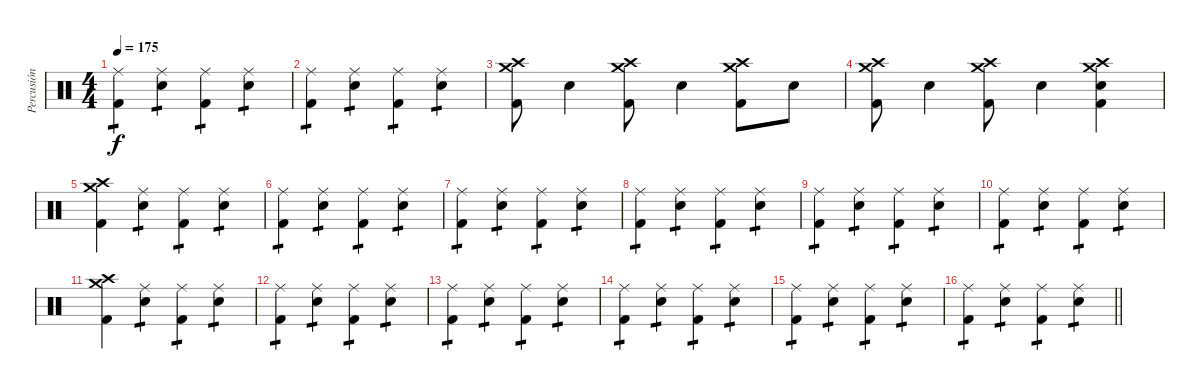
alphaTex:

\track ("Percusión" "Percusión") {instrument percussion}
\staff {score}
\articulation defaults
\ts (4 4)
\tempo 175
\clef neutral
\ks c
("Ride (middle)" "Kick (hit) 2").4{tp 1 dy f} ("Ride (middle)" "Electric Snare (hit)").4{tp 1} ("Ride (middle)" "Kick (hit) 2").4{tp 1} ("Ride (middle)" "Electric Snare (hit)").4{tp 1} |
("Ride (middle)" "Kick (hit) 2").4{tp 1} ("Ride (middle)" "Electric Snare (hit)").4{tp 1} ("Ride (middle)" "Kick (hit) 2").4{tp 1} ("Ride (middle)" "Electric Snare (hit)").4{tp 1} |
("Crash high (hit)" "Crash medium (hit)" "Kick (hit) 2").8 "Electric Snare (hit)".4 ("Crash high (hit)" "Crash medium (hit)" "Kick (hit) 2").8 "Electric Snare (hit)".4 ("Crash high (hit)" "Crash medium (hit)" "Kick (hit) 2").8 "Electric Snare (hit)".8 |
("Crash high (hit)" "Crash medium (hit)" "Kick (hit) 2").8 "Electric Snare (hit)".4 ("Crash high (hit)" "Crash medium (hit)" "Kick (hit) 2").8 "Electric Snare (hit)".4 ("Crash high (hit)" "Crash medium (hit)" "Electric Snare (hit)" "Kick (hit) 2").4 |
("Crash high (hit)" "Crash medium (hit)" "Kick (hit) 2").4 ("Ride (middle)" "Electric Snare (hit)").4{tp 1} ("Ride (middle)" "Kick (hit) 2").4{tp 1} ("Ride (middle)" "Electric Snare (hit)").4{tp 1} |
("Ride (middle)" "Kick (hit) 2").4{tp 1} ("Ride (middle)" "Electric Snare (hit)").4{tp 1} ("Ride (middle)" "Kick (hit) 2").4{tp 1} ("Ride (middle)" "Electric Snare (hit)").4{tp 1} |
("Ride (middle)" "Kick (hit) 2").4{tp 1} ("Ride (middle)" "Electric Snare (hit)").4{tp 1} ("Ride (middle)" "Kick (hit) 2").4{tp 1} ("Ride (middle)" "Electric Snare (hit)").4{tp 1} |
("Ride (middle)" "Kick (hit) 2").4{tp 1} ("Ride (middle)" "Electric Snare (hit)").4{tp 1} ("Ride (middle)" "Kick (hit) 2").4{tp 1} ("Ride (middle)" "Electric Snare (hit)").4{tp 1} |
("Ride (middle)" "Kick (hit) 2").4{tp 1} ("Ride (middle)" "Electric Snare (hit)").4{tp 1} ("Ride (middle)" "Kick (hit) 2").4{tp 1} ("Ride (middle)" "Electric Snare (hit)").4{tp 1} |
("Ride (middle)" "Kick (hit) 2").4{tp 1} ("Ride (middle)" "Electric Snare (hit)").4{tp 1} ("Ride (middle)" "Kick (hit) 2").4{tp 1} ("Ride (middle)" "Electric Snare (hit)").4{tp 1} |
("Crash high (hit)" "Crash medium (hit)" "Kick (hit) 2").4 ("Ride (middle)" "Electric Snare (hit)").4{tp 1} ("Ride (middle)" "Kick (hit) 2").4{tp 1} ("Ride (middle)" "Electric Snare (hit)").4{tp 1} |
("Ride (middle)" "Kick (hit) 2").4{tp 1} ("Ride (middle)" "Electric Snare (hit)").4{tp 1} ("Ride (middle)" "Kick (hit) 2").4{tp 1} ("Ride (middle)" "Electric Snare (hit)").4{tp 1} |
("Ride (middle)" "Kick (hit) 2").4{tp 1} ("Ride (middle)" "Electric Snare (hit)").4{tp 1} ("Ride (middle)" "Kick (hit) 2").4{tp 1} ("Ride (middle)" "Electric Snare (hit)").4{tp 1} |
("Ride (middle)" "Kick (hit) 2").4{tp 1} ("Ride (middle)" "Electric Snare (hit)").4{tp 1} ("Ride (middle)" "Kick (hit) 2").4{tp 1} ("Ride (middle)" "Electric Snare (hit)").4{tp 1} |
("Ride (middle)" "Kick (hit) 2").4{tp 1} ("Ride (middle)" "Electric Snare (hit)").4{tp 1} ("Ride (middle)" "Kick (hit) 2").4{tp 1} ("Ride (middle)" "Electric Snare (hit)").4{tp 1} |
\barLineRight lightlight
("Ride (middle)" "Kick (hit) 2").4{tp 1} ("Ride (middle)" "Electric Snare (hit)").4{tp 1} ("Ride (middle)" "Kick (hit) 2").4{tp 1} ("Ride (middle)" "Electric Snare (hit)").4{tp 1}
